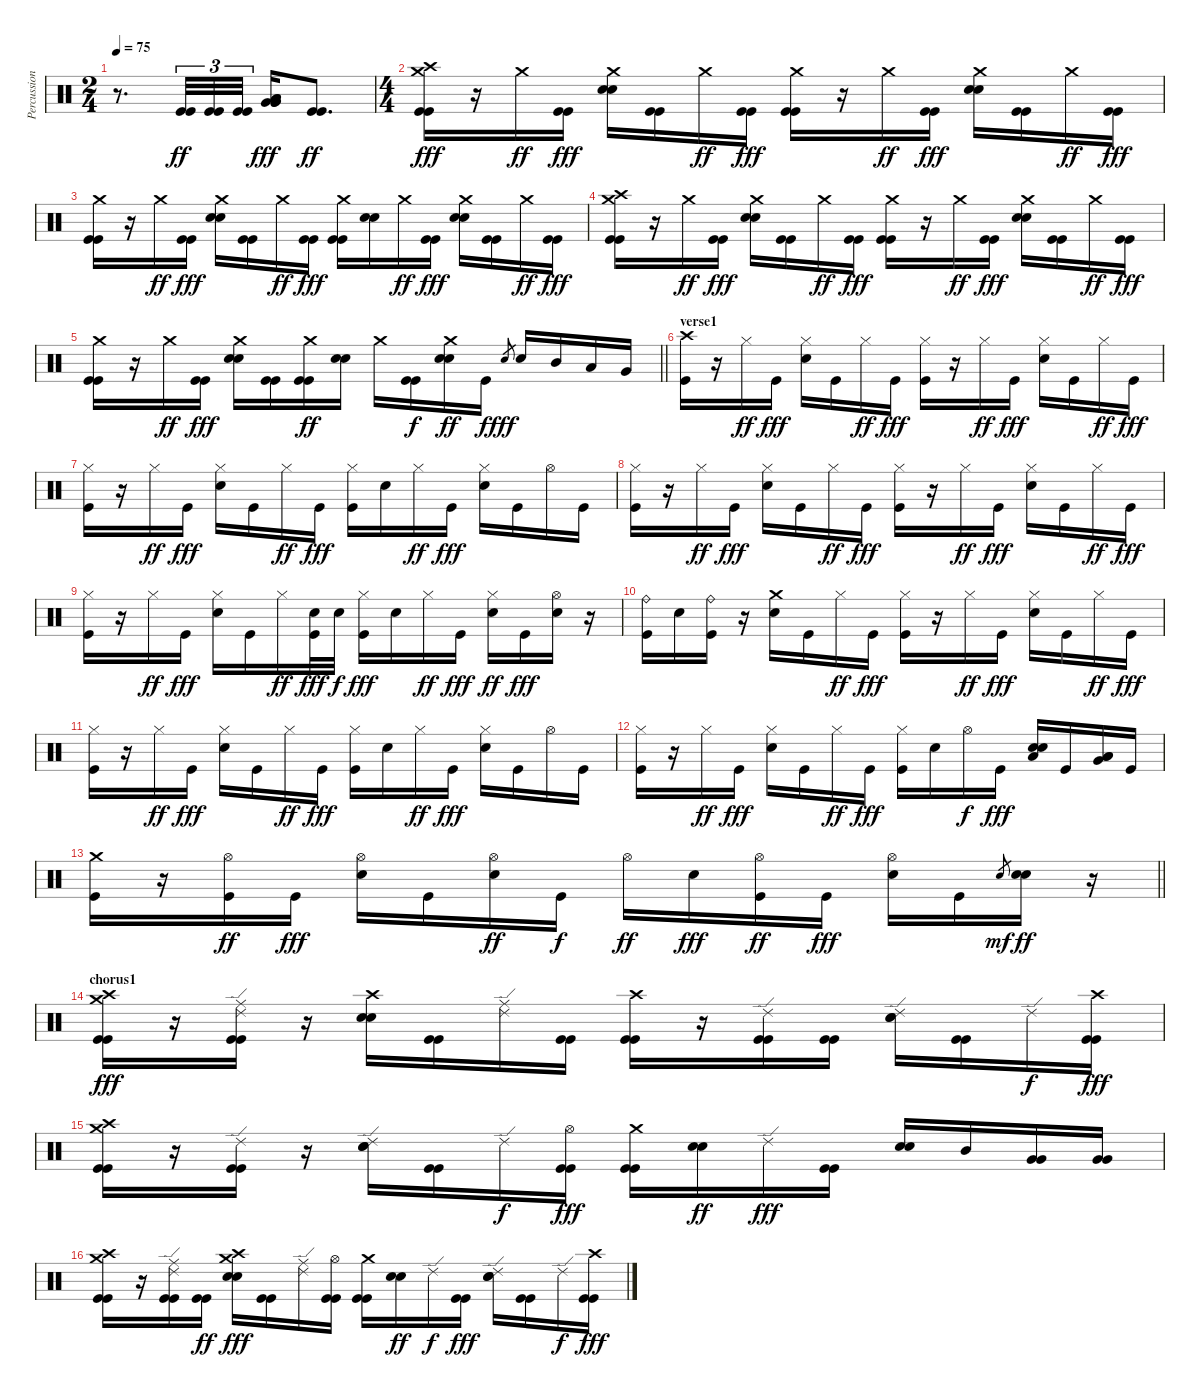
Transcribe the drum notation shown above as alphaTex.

\track ("Percussion" "Percussion") {instrument percussion}
\staff {score}
\articulation defaults
\ts (2 4)
\tempo 75
\clef neutral
\ks c
r.8{d dy ff} ("Kick (hit)" "Kick (hit)").32{tu (3 2)} ("Kick (hit)" "Kick (hit)").32{tu (3 2)} ("Kick (hit)" "Kick (hit)").32{tu (3 2)} ("Very Low Tom (hit)" "Low Floor Tom (hit)" "Very Low Tom (hit)" "Low Floor Tom (hit)" "Very Low Tom (hit)").16{dy fff} ("Kick (hit)" "Kick (hit)").8{d dy ff} |
\ts (4 4)
("Crash high (hit)" "Crash medium (hit)" "Kick (hit)" "Kick (hit)").16{dy fff} r.16 "Crash medium (hit)".16{dy ff} ("Kick (hit)" "Kick (hit)").16{dy fff} ("Crash medium (hit)" "Electric Snare (hit)" "Electric Snare (hit)").16 ("Kick (hit)" "Kick (hit)").16 "Crash medium (hit)".16{dy ff} ("Kick (hit)" "Kick (hit)").16{dy fff} ("Crash medium (hit)" "Kick (hit)" "Kick (hit)").16 r.16 "Crash medium (hit)".16{dy ff} ("Kick (hit)" "Kick (hit)").16{dy fff} ("Crash medium (hit)" "Electric Snare (hit)" "Electric Snare (hit)").16 ("Kick (hit)" "Kick (hit)").16 "Crash medium (hit)".16{dy ff} ("Kick (hit)" "Kick (hit)").16{dy fff} |
("Crash medium (hit)" "Kick (hit)" "Kick (hit)").16 r.16 "Crash medium (hit)".16{dy ff} ("Kick (hit)" "Kick (hit)").16{dy fff} ("Crash medium (hit)" "Electric Snare (hit)" "Electric Snare (hit)").16 ("Kick (hit)" "Kick (hit)").16 "Crash medium (hit)".16{dy ff} ("Kick (hit)" "Kick (hit)").16{dy fff} ("Crash medium (hit)" "Kick (hit)" "Kick (hit)").16 ("Electric Snare (hit)" "Electric Snare (hit)").16 "Crash medium (hit)".16{dy ff} ("Kick (hit)" "Kick (hit)").16{dy fff} ("Crash medium (hit)" "Electric Snare (hit)" "Electric Snare (hit)").16 ("Kick (hit)" "Kick (hit)").16 "Crash medium (hit)".16{dy ff} ("Kick (hit)" "Kick (hit)").16{dy fff} |
("Crash high (hit)" "Crash medium (hit)" "Kick (hit)" "Kick (hit)").16 r.16 "Crash medium (hit)".16{dy ff} ("Kick (hit)" "Kick (hit)").16{dy fff} ("Crash medium (hit)" "Electric Snare (hit)" "Electric Snare (hit)").16 ("Kick (hit)" "Kick (hit)").16 "Crash medium (hit)".16{dy ff} ("Kick (hit)" "Kick (hit)").16{dy fff} ("Crash medium (hit)" "Kick (hit)" "Kick (hit)").16 r.16 "Crash medium (hit)".16{dy ff} ("Kick (hit)" "Kick (hit)").16{dy fff} ("Crash medium (hit)" "Electric Snare (hit)" "Electric Snare (hit)").16 ("Kick (hit)" "Kick (hit)").16 "Crash medium (hit)".16{dy ff} ("Kick (hit)" "Kick (hit)").16{dy fff} |
\barLineRight lightlight
("Crash medium (hit)" "Kick (hit)" "Kick (hit)").16 r.16 "Crash medium (hit)".16{dy ff} ("Kick (hit)" "Kick (hit)").16{dy fff} ("Crash medium (hit)" "Electric Snare (hit)" "Electric Snare (hit)").16 ("Kick (hit)" "Kick (hit)").16 ("Crash medium (hit)" "Kick (hit)" "Kick (hit)").16{dy ff} ("Electric Snare (hit)" "Electric Snare (hit)").16 "Crash medium (hit)".16 ("Kick (hit)" "Kick (hit)").16{dy f} ("Crash medium (hit)" "Electric Snare (hit)" "Electric Snare (hit)").16{dy ff} "Kick (hit)".16{dy f} "Electric Snare (hit)".8{gr dy fff} "Electric Snare (hit)".16 "Mid Tom (hit)".16 "Low Tom (hit)".16 "Very Low Tom (hit)".16 |
\section ("" "verse1")
("Crash high (hit)" "Kick (hit)").16 r.16 "Hi-Hat (closed)".16{dy ff} "Kick (hit)".16{dy fff} ("Hi-Hat (closed)" "Electric Snare (hit)").16 "Kick (hit)".16 "Hi-Hat (closed)".16{dy ff} "Kick (hit)".16{dy fff} ("Hi-Hat (closed)" "Kick (hit)").16 r.16 "Hi-Hat (closed)".16{dy ff} "Kick (hit)".16{dy fff} ("Hi-Hat (closed)" "Electric Snare (hit)").16 "Kick (hit)".16 "Hi-Hat (closed)".16{dy ff} "Kick (hit)".16{dy fff} |
("Hi-Hat (closed)" "Kick (hit)").16 r.16 "Hi-Hat (closed)".16{dy ff} "Kick (hit)".16{dy fff} ("Hi-Hat (closed)" "Electric Snare (hit)").16 "Kick (hit)".16 "Hi-Hat (closed)".16{dy ff} "Kick (hit)".16{dy fff} ("Hi-Hat (closed)" "Kick (hit)").16 "Electric Snare (hit)".16 "Hi-Hat (closed)".16{dy ff} "Kick (hit)".16{dy fff} ("Hi-Hat (closed)" "Electric Snare (hit)").16 "Kick (hit)".16 "Hi-Hat (open)".16 "Kick (hit)".16 |
("Hi-Hat (closed)" "Kick (hit)").16 r.16 "Hi-Hat (closed)".16{dy ff} "Kick (hit)".16{dy fff} ("Hi-Hat (closed)" "Electric Snare (hit)").16 "Kick (hit)".16 "Hi-Hat (closed)".16{dy ff} "Kick (hit)".16{dy fff} ("Hi-Hat (closed)" "Kick (hit)").16 r.16 "Hi-Hat (closed)".16{dy ff} "Kick (hit)".16{dy fff} ("Hi-Hat (closed)" "Electric Snare (hit)").16 "Kick (hit)".16 "Hi-Hat (closed)".16{dy ff} "Kick (hit)".16{dy fff} |
("Hi-Hat (closed)" "Kick (hit)").16 r.16 "Hi-Hat (closed)".16{dy ff} "Kick (hit)".16{dy fff} ("Hi-Hat (closed)" "Electric Snare (hit)").16 "Kick (hit)".16 "Hi-Hat (closed)".16{dy ff} ("Electric Snare (hit)" "Kick (hit)").32{dy fff} "Electric Snare (hit)".32{dy f} ("Hi-Hat (closed)" "Kick (hit)").16{dy fff} "Electric Snare (hit)".16 "Hi-Hat (closed)".16{dy ff} "Kick (hit)".16{dy fff} ("Hi-Hat (closed)" "Electric Snare (hit)").16{dy ff} "Kick (hit)".16{dy fff} ("Hi-Hat (open)" "Electric Snare (hit)").16 r.16 |
("Ride (bell)" "Kick (hit)").16 "Electric Snare (hit)".16 ("Ride (bell)" "Kick (hit)").16 r.16 ("Crash medium (hit)" "Electric Snare (hit)").16 "Kick (hit)".16 "Hi-Hat (closed)".16{dy ff} "Kick (hit)".16{dy fff} ("Hi-Hat (closed)" "Kick (hit)").16 r.16 "Hi-Hat (closed)".16{dy ff} "Kick (hit)".16{dy fff} ("Hi-Hat (closed)" "Electric Snare (hit)").16 "Kick (hit)".16 "Hi-Hat (closed)".16{dy ff} "Kick (hit)".16{dy fff} |
("Hi-Hat (closed)" "Kick (hit)").16 r.16 "Hi-Hat (closed)".16{dy ff} "Kick (hit)".16{dy fff} ("Hi-Hat (closed)" "Electric Snare (hit)").16 "Kick (hit)".16 "Hi-Hat (closed)".16{dy ff} "Kick (hit)".16{dy fff} ("Hi-Hat (closed)" "Kick (hit)").16 "Electric Snare (hit)".16 "Hi-Hat (closed)".16{dy ff} "Kick (hit)".16{dy fff} ("Hi-Hat (closed)" "Electric Snare (hit)").16 "Kick (hit)".16 "Hi-Hat (open)".16 "Kick (hit)".16 |
("Hi-Hat (closed)" "Kick (hit)").16 r.16 "Hi-Hat (closed)".16{dy ff} "Kick (hit)".16{dy fff} ("Hi-Hat (closed)" "Electric Snare (hit)").16 "Kick (hit)".16 "Hi-Hat (closed)".16{dy ff} "Kick (hit)".16{dy fff} ("Hi-Hat (closed)" "Kick (hit)").16 "Electric Snare (hit)".16 "Hi-Hat (open)".16{dy f} "Kick (hit)".16{dy fff} ("Electric Snare (hit)" "Electric Snare (hit)" "Low Floor Tom (hit)").16 "Kick (hit)".16 ("Low Floor Tom (hit)" "Very Low Tom (hit)" "Low Floor Tom (hit)").16 "Kick (hit)".16 |
\barLineRight lightlight
("Crash medium (hit)" "Kick (hit)").16 r.16 ("Hi-Hat (open)" "Kick (hit)").16{dy ff} "Kick (hit)".16{dy fff} ("Hi-Hat (open)" "Electric Snare (hit)").16 "Kick (hit)".16 ("Hi-Hat (open)" "Electric Snare (hit)").16{dy ff} "Kick (hit)".16{dy f} "Hi-Hat (open)".16{dy ff} "Electric Snare (hit)".16{dy fff} ("Hi-Hat (open)" "Kick (hit)").16{dy ff} "Kick (hit)".16{dy fff} ("Hi-Hat (open)" "Electric Snare (hit)").16 "Kick (hit)".16 "Electric Snare (hit)".8{gr dy mf} ("Electric Snare (hit)" "Electric Snare (hit)").16{dy ff} r.16 |
\section ("" "chorus1")
("Crash medium (hit)" "Crash high (hit)" "Kick (hit)" "Kick (hit)").16{dy fff} r.16 ("Ride (middle)" "Ride (edge) 2" "Kick (hit)" "Kick (hit)").16 r.16 ("Crash high (hit)" "Electric Snare (hit)" "Electric Snare (hit)").16 ("Kick (hit)" "Kick (hit)").16 ("Ride (middle)" "Ride (edge) 2").16 ("Kick (hit)" "Kick (hit)").16 ("Crash high (hit)" "Kick (hit)" "Kick (hit)").16 r.16 ("Ride (edge) 2" "Kick (hit)" "Kick (hit)").16 ("Kick (hit)" "Kick (hit)").16 ("Ride (edge) 2" "Electric Snare (hit)" "Electric Snare (hit)").16 ("Kick (hit)" "Kick (hit)").16 "Ride (edge) 2".16{dy f} ("Crash high (hit)" "Kick (hit)" "Kick (hit)").16{dy fff} |
("Crash medium (hit)" "Crash high (hit)" "Kick (hit)" "Kick (hit)").16 r.16 ("Ride (edge) 2" "Kick (hit)" "Kick (hit)").16 r.16 ("Ride (edge) 2" "Electric Snare (hit)" "Electric Snare (hit)").16 ("Kick (hit)" "Kick (hit)").16 "Ride (edge) 2".16{dy f} ("Hi-Hat (open)" "Kick (hit)" "Kick (hit)").16{dy fff} ("Crash medium (hit)" "Kick (hit)" "Kick (hit)").16 ("Electric Snare (hit)" "Electric Snare (hit)").16{dy ff} "Ride (edge) 2".16{dy fff} ("Kick (hit)" "Kick (hit)").16 ("Electric Snare (hit)" "Electric Snare (hit)").16 "Mid Tom (hit)".16 ("Very Low Tom (hit)" "Very Low Tom (hit)").16 ("Very Low Tom (hit)" "Very Low Tom (hit)").16 |
("Crash medium (hit)" "Crash high (hit)" "Kick (hit)" "Kick (hit)").16 r.16 ("Ride (middle)" "Ride (edge) 2" "Kick (hit)" "Kick (hit)").16 ("Kick (hit)" "Kick (hit)").16{dy ff} ("Crash high (hit)" "Crash medium (hit)" "Electric Snare (hit)" "Electric Snare (hit)").16{dy fff} ("Kick (hit)" "Kick (hit)").16 ("Ride (middle)" "Ride (edge) 2").16 ("Hi-Hat (open)" "Kick (hit)" "Kick (hit)").16 ("Crash medium (hit)" "Kick (hit)" "Kick (hit)").16 ("Electric Snare (hit)" "Electric Snare (hit)").16{dy ff} "Ride (edge) 2".16{dy f} ("Kick (hit)" "Kick (hit)").16{dy fff} ("Ride (edge) 2" "Electric Snare (hit)" "Electric Snare (hit)").16 ("Kick (hit)" "Kick (hit)").16 "Ride (edge) 2".16{dy f} ("Crash high (hit)" "Kick (hit)" "Kick (hit)").16{dy fff}
